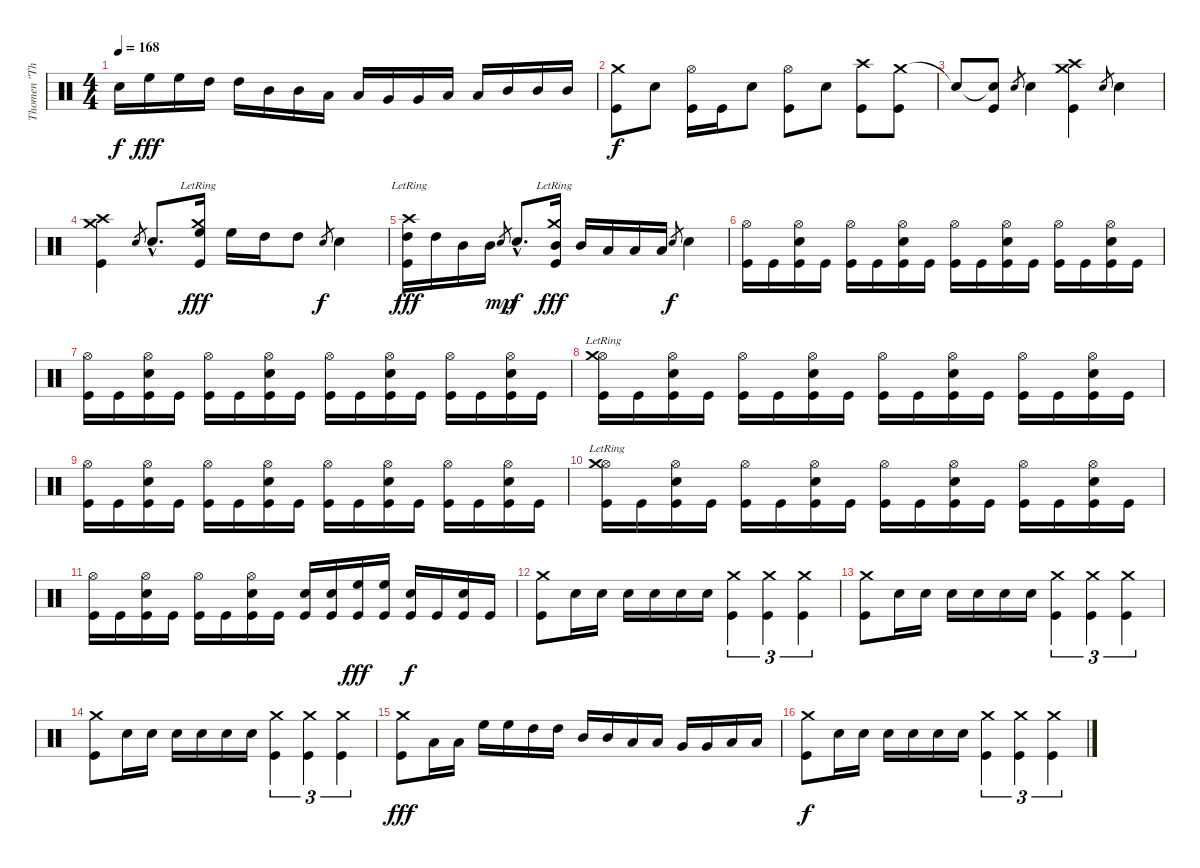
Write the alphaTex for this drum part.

\track ("Thomen \"The Omen\" Stauch" "Thomen \"Th") {instrument percussion}
\staff {score}
\articulation defaults
\ts (4 4)
\tempo 168
\clef neutral
\ks c "Snare (hit) 2".16{dy f} "High Floor Tom (hit)".16{dy fff} "High Floor Tom (hit)".16 "High Tom (hit)".16 "High Tom (hit)".16 "Mid Tom (hit)".16 "Mid Tom (hit)".16 "Low Tom (hit)".16 "Low Tom (hit)".16 "Very Low Tom (hit)".16 "Very Low Tom (hit)".16 "Low Tom (hit)".16 "Low Tom (hit)".16 "Mid Tom (hit)".16 "Mid Tom (hit)".16 "Mid Tom (hit)".16
|
("Crash medium (hit)" "Kick (hit)").8{dy f} "Snare (hit) 2".8 ("Hi-Hat (open)" "Kick (hit)").16 "Kick (hit)".16 "Snare (hit) 2".8 ("Hi-Hat (open)" "Kick (hit)").8 "Snare (hit) 2".8 ("Crash high (hit)" "Kick (hit)").8 ("Crash medium (hit)" "Kick (hit)").8 |
"Snare (hit)"{t}.8 ("Snare (hit)"{t} "Kick (hit)").8 "Snare (hit) 2".8{gr} "Snare (hit) 2".4 ("Crash medium (hit)" "Crash high (hit)" "Kick (hit)").4 "Snare (hit) 2".8{gr} "Snare (hit) 2".4 |
("Crash medium (hit)" "Crash high (hit)" "Kick (hit)").4 "Snare (hit) 2".8{gr} "Snare (hit) 2"{hac}.8{d} ("Crash medium (hit)"{lr} "High Floor Tom (hit)" "Kick (hit)").16{dy fff} "High Floor Tom (hit)".16 "High Tom (hit)".16 "High Tom (hit)".8 "Snare (hit) 2".8{gr dy f} "Snare (hit) 2".4 |
("Crash high (hit)"{lr} "High Tom (hit)" "Kick (hit)").16{dy fff} "High Tom (hit)".16 "Mid Tom (hit)".16 "Mid Tom (hit)".16 "Snare (hit) 2".8{gr dy mp} "Snare (hit) 2"{hac}.8{d dy f} ("Crash medium (hit)"{lr} "Mid Tom (hit)" "Kick (hit)").16{dy fff} "Mid Tom (hit)".16 "Low Tom (hit)".16 "Low Tom (hit)".16 "Low Tom (hit)".16 "Snare (hit) 2".8{gr dy f} "Snare (hit) 2".4 |
("Hi-Hat (open)" "Kick (hit)").16 "Kick (hit)".16 ("Hi-Hat (open)" "Snare (hit) 2" "Kick (hit)").16 "Kick (hit)".16 ("Hi-Hat (open)" "Kick (hit)").16 "Kick (hit)".16 ("Hi-Hat (open)" "Snare (hit) 2" "Kick (hit)").16 "Kick (hit)".16 ("Hi-Hat (open)" "Kick (hit)").16 "Kick (hit)".16 ("Hi-Hat (open)" "Snare (hit) 2" "Kick (hit)").16 "Kick (hit)".16 ("Hi-Hat (open)" "Kick (hit)").16 "Kick (hit)".16 ("Hi-Hat (open)" "Snare (hit) 2" "Kick (hit)").16 "Kick (hit)".16 |
("Hi-Hat (open)" "Kick (hit)").16 "Kick (hit)".16 ("Hi-Hat (open)" "Snare (hit) 2" "Kick (hit)").16 "Kick (hit)".16 ("Hi-Hat (open)" "Kick (hit)").16 "Kick (hit)".16 ("Hi-Hat (open)" "Snare (hit) 2" "Kick (hit)").16 "Kick (hit)".16 ("Hi-Hat (open)" "Kick (hit)").16 "Kick (hit)".16 ("Hi-Hat (open)" "Snare (hit) 2" "Kick (hit)").16 "Kick (hit)".16 ("Hi-Hat (open)" "Kick (hit)").16 "Kick (hit)".16 ("Hi-Hat (open)" "Snare (hit) 2" "Kick (hit)").16 "Kick (hit)".16 |
("Hi-Hat (open)" "Crash medium (hit)"{lr} "Kick (hit)").16 "Kick (hit)".16 ("Hi-Hat (open)" "Snare (hit) 2" "Kick (hit)").16 "Kick (hit)".16 ("Hi-Hat (open)" "Kick (hit)").16 "Kick (hit)".16 ("Hi-Hat (open)" "Snare (hit) 2" "Kick (hit)").16 "Kick (hit)".16 ("Hi-Hat (open)" "Kick (hit)").16 "Kick (hit)".16 ("Hi-Hat (open)" "Snare (hit) 2" "Kick (hit)").16 "Kick (hit)".16 ("Hi-Hat (open)" "Kick (hit)").16 "Kick (hit)".16 ("Hi-Hat (open)" "Snare (hit) 2" "Kick (hit)").16 "Kick (hit)".16 |
("Hi-Hat (open)" "Kick (hit)").16 "Kick (hit)".16 ("Hi-Hat (open)" "Snare (hit) 2" "Kick (hit)").16 "Kick (hit)".16 ("Hi-Hat (open)" "Kick (hit)").16 "Kick (hit)".16 ("Hi-Hat (open)" "Snare (hit) 2" "Kick (hit)").16 "Kick (hit)".16 ("Hi-Hat (open)" "Kick (hit)").16 "Kick (hit)".16 ("Hi-Hat (open)" "Snare (hit) 2" "Kick (hit)").16 "Kick (hit)".16 ("Hi-Hat (open)" "Kick (hit)").16 "Kick (hit)".16 ("Hi-Hat (open)" "Snare (hit) 2" "Kick (hit)").16 "Kick (hit)".16 |
("Hi-Hat (open)" "Crash medium (hit)"{lr} "Kick (hit)").16 "Kick (hit)".16 ("Hi-Hat (open)" "Snare (hit) 2" "Kick (hit)").16 "Kick (hit)".16 ("Hi-Hat (open)" "Kick (hit)").16 "Kick (hit)".16 ("Hi-Hat (open)" "Snare (hit) 2" "Kick (hit)").16 "Kick (hit)".16 ("Hi-Hat (open)" "Kick (hit)").16 "Kick (hit)".16 ("Hi-Hat (open)" "Snare (hit) 2" "Kick (hit)").16 "Kick (hit)".16 ("Hi-Hat (open)" "Kick (hit)").16 "Kick (hit)".16 ("Hi-Hat (open)" "Snare (hit) 2" "Kick (hit)").16 "Kick (hit)".16 |
("Hi-Hat (open)" "Kick (hit)").16 "Kick (hit)".16 ("Hi-Hat (open)" "Snare (hit) 2" "Kick (hit)").16 "Kick (hit)".16 ("Hi-Hat (open)" "Kick (hit)").16 "Kick (hit)".16 ("Hi-Hat (open)" "Snare (hit) 2" "Kick (hit)").16 "Kick (hit)".16 ("Snare (hit) 2" "Kick (hit)").16 ("Snare (hit) 2" "Kick (hit)").16 ("High Floor Tom (hit)" "Kick (hit)").16{dy fff} ("High Floor Tom (hit)" "Kick (hit)").16 ("Snare (hit) 2" "Kick (hit)").16{dy f} "Kick (hit)".16 ("Snare (hit) 2" "Kick (hit)").16 "Kick (hit)".16 |
("Crash medium (hit)" "Kick (hit)").8 "Snare (hit) 2".16 "Snare (hit) 2".16 "Snare (hit) 2".16 "Snare (hit) 2".16 "Snare (hit) 2".16 "Snare (hit) 2".16 ("Crash medium (hit)" "Kick (hit)").4{tu (3 2)} ("Crash medium (hit)" "Kick (hit)").4{tu (3 2)} ("Crash medium (hit)" "Kick (hit)").4{tu (3 2)} |
("Crash medium (hit)" "Kick (hit)").8 "Snare (hit) 2".16 "Snare (hit) 2".16 "Snare (hit) 2".16 "Snare (hit) 2".16 "Snare (hit) 2".16 "Snare (hit) 2".16 ("Crash medium (hit)" "Kick (hit)").4{tu (3 2)} ("Crash medium (hit)" "Kick (hit)").4{tu (3 2)} ("Crash medium (hit)" "Kick (hit)").4{tu (3 2)} |
("Crash medium (hit)" "Kick (hit)").8 "Snare (hit) 2".16 "Snare (hit) 2".16 "Snare (hit) 2".16 "Snare (hit) 2".16 "Snare (hit) 2".16 "Snare (hit) 2".16 ("Crash medium (hit)" "Kick (hit)").4{tu (3 2)} ("Crash medium (hit)" "Kick (hit)").4{tu (3 2)} ("Crash medium (hit)" "Kick (hit)").4{tu (3 2)} |
("Crash medium (hit)" "Kick (hit)").8{dy fff} "Low Tom (hit)".16 "Low Tom (hit)".16 "High Floor Tom (hit)".16 "High Floor Tom (hit)".16 "High Tom (hit)".16 "High Tom (hit)".16 "Mid Tom (hit)".16 "Mid Tom (hit)".16 "Low Tom (hit)".16 "Low Tom (hit)".16 "Very Low Tom (hit)".16 "Very Low Tom (hit)".16 "Low Floor Tom (hit)".16 "Low Floor Tom (hit)".16 |
("Crash medium (hit)" "Kick (hit)").8{dy f} "Snare (hit) 2".16 "Snare (hit) 2".16 "Snare (hit) 2".16 "Snare (hit) 2".16 "Snare (hit) 2".16 "Snare (hit) 2".16 ("Crash medium (hit)" "Kick (hit)").4{tu (3 2)} ("Crash medium (hit)" "Kick (hit)").4{tu (3 2)} ("Crash medium (hit)" "Kick (hit)").4{tu (3 2)}
